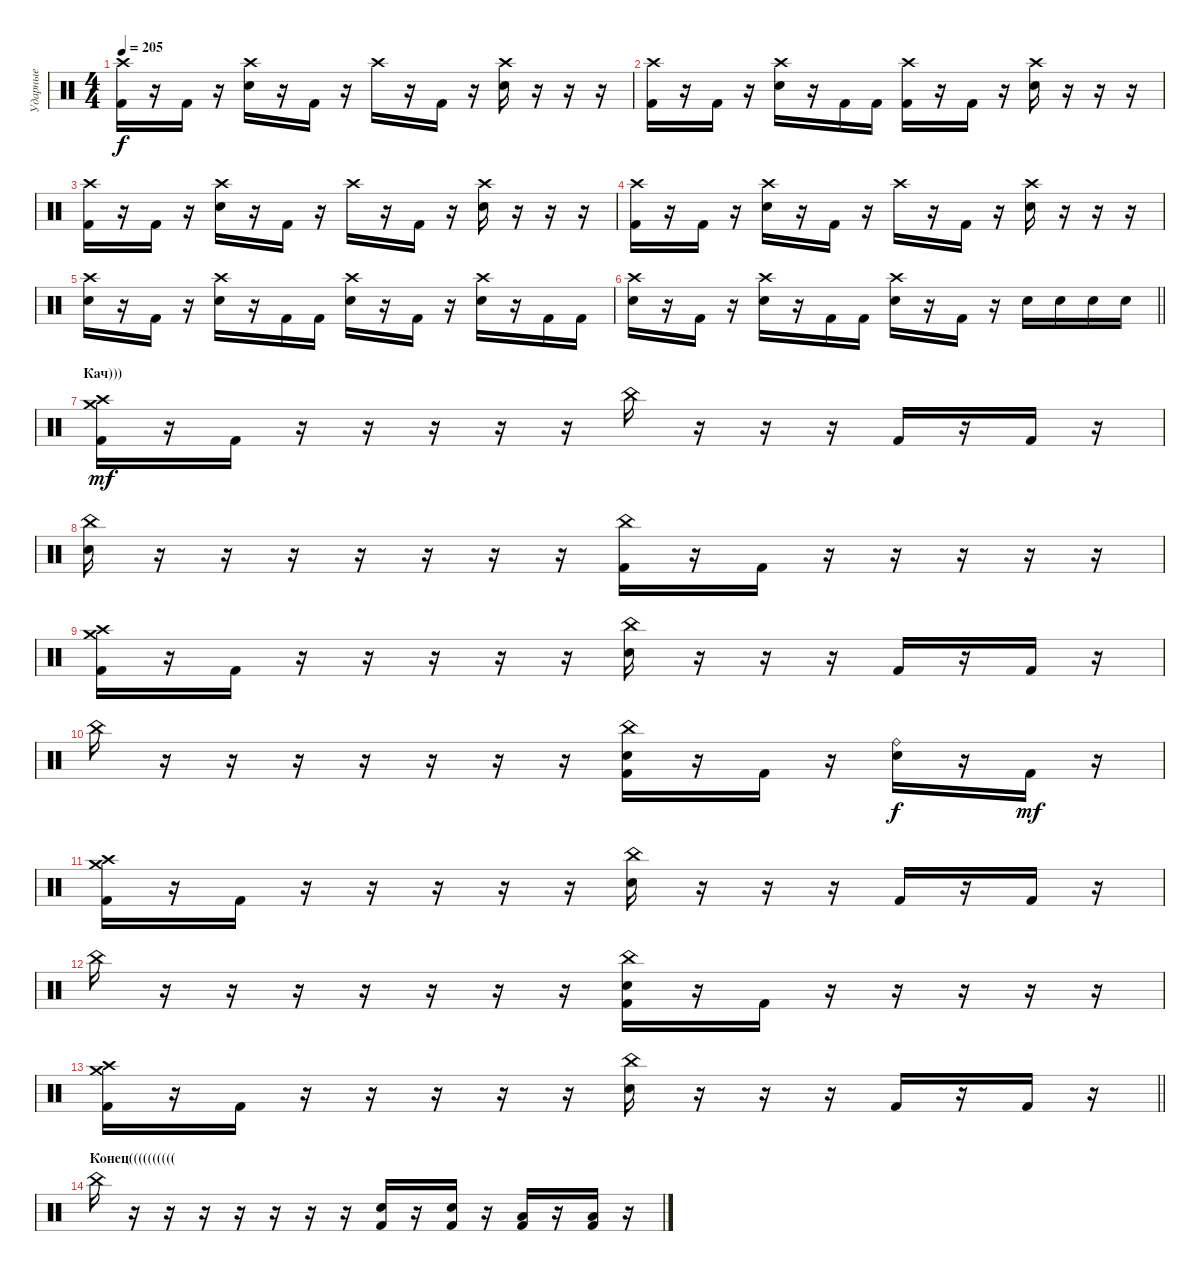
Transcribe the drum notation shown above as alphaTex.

\track ("Ударные" "Ударные") {instrument percussion}
\staff {score}
\articulation defaults
\ts (4 4)
\tempo 205
\clef neutral
\ks c
("Crash high (hit)" "Kick (hit) 2").16{dy f} r.16 "Kick (hit) 2".16 r.16 ("Crash high (hit)" "Electric Snare (hit)").16 r.16 "Kick (hit) 2".16 r.16 "Crash high (hit)".16 r.16 "Kick (hit) 2".16 r.16 ("Crash high (hit)" "Electric Snare (hit)").16 r.16 r.16 r.16 |
("Crash high (hit)" "Kick (hit) 2").16 r.16 "Kick (hit) 2".16 r.16 ("Crash high (hit)" "Electric Snare (hit)").16 r.16 "Kick (hit) 2".16 "Kick (hit) 2".16 ("Crash high (hit)" "Kick (hit) 2").16 r.16 "Kick (hit) 2".16 r.16 ("Crash high (hit)" "Electric Snare (hit)").16 r.16 r.16 r.16 |
("Crash high (hit)" "Kick (hit) 2").16 r.16 "Kick (hit) 2".16 r.16 ("Crash high (hit)" "Electric Snare (hit)").16 r.16 "Kick (hit) 2".16 r.16 "Crash high (hit)".16 r.16 "Kick (hit) 2".16 r.16 ("Crash high (hit)" "Electric Snare (hit)").16 r.16 r.16 r.16 |
("Crash high (hit)" "Kick (hit) 2").16 r.16 "Kick (hit) 2".16 r.16 ("Crash high (hit)" "Electric Snare (hit)").16 r.16 "Kick (hit) 2".16 r.16 "Crash high (hit)".16 r.16 "Kick (hit) 2".16 r.16 ("Crash high (hit)" "Electric Snare (hit)").16 r.16 r.16 r.16 |
("Crash high (hit)" "Electric Snare (hit)").16 r.16 "Kick (hit) 2".16 r.16 ("Crash high (hit)" "Electric Snare (hit)").16 r.16 "Kick (hit) 2".16 "Kick (hit) 2".16 ("Crash high (hit)" "Electric Snare (hit)").16 r.16 "Kick (hit) 2".16 r.16 ("Crash high (hit)" "Electric Snare (hit)").16 r.16 "Kick (hit) 2".16 "Kick (hit) 2".16 |
\barLineRight lightlight
("Crash high (hit)" "Electric Snare (hit)").16 r.16 "Kick (hit) 2".16 r.16 ("Crash high (hit)" "Electric Snare (hit)").16 r.16 "Kick (hit) 2".16 "Kick (hit) 2".16 ("Crash high (hit)" "Electric Snare (hit)").16 r.16 "Kick (hit) 2".16 r.16 "Electric Snare (hit)".16 "Electric Snare (hit)".16 "Electric Snare (hit)".16 "Electric Snare (hit)".16 |
\section ("" "Кач)))")
("Crash high (hit)" "Crash medium (hit)" "Kick (hit) 2").16{dy mf} r.16 "Kick (hit) 2".16 r.16 r.16 r.16 r.16 r.16 "China (hit)".16 r.16 r.16 r.16 "Kick (hit) 2".16 r.16 "Kick (hit) 2".16 r.16 |
("China (hit)" "Electric Snare (hit)").16 r.16 r.16 r.16 r.16 r.16 r.16 r.16 ("China (hit)" "Kick (hit) 2").16 r.16 "Kick (hit) 2".16 r.16 r.16 r.16 r.16 r.16 |
("Crash high (hit)" "Crash medium (hit)" "Kick (hit) 2").16 r.16 "Kick (hit) 2".16 r.16 r.16 r.16 r.16 r.16 ("China (hit)" "Electric Snare (hit)").16 r.16 r.16 r.16 "Kick (hit) 2".16 r.16 "Kick (hit) 2".16 r.16 |
"China (hit)".16 r.16 r.16 r.16 r.16 r.16 r.16 r.16 ("China (hit)" "Electric Snare (hit)" "Kick (hit) 2").16 r.16 "Kick (hit) 2".16 r.16 ("Ride (bell)" "Electric Snare (hit)").16{dy f} r.16 "Kick (hit) 2".16{dy mf} r.16 |
("Crash high (hit)" "Crash medium (hit)" "Kick (hit) 2").16 r.16 "Kick (hit) 2".16 r.16 r.16 r.16 r.16 r.16 ("China (hit)" "Electric Snare (hit)").16 r.16 r.16 r.16 "Kick (hit) 2".16 r.16 "Kick (hit) 2".16 r.16 |
"China (hit)".16 r.16 r.16 r.16 r.16 r.16 r.16 r.16 ("China (hit)" "Electric Snare (hit)" "Kick (hit) 2").16 r.16 "Kick (hit) 2".16 r.16 r.16 r.16 r.16 r.16 |
\barLineRight lightlight
("Crash high (hit)" "Crash medium (hit)" "Kick (hit) 2").16 r.16 "Kick (hit) 2".16 r.16 r.16 r.16 r.16 r.16 ("China (hit)" "Electric Snare (hit)").16 r.16 r.16 r.16 "Kick (hit) 2".16 r.16 "Kick (hit) 2".16 r.16 |
\section ("" "Конец((((((((((")
"China (hit)".16 r.16 r.16 r.16 r.16 r.16 r.16 r.16 ("Electric Snare (hit)" "Kick (hit) 2").16 r.16 ("Electric Snare (hit)" "Kick (hit) 2").16 r.16 ("Low Tom (hit)" "Kick (hit) 2").16 r.16 ("Low Tom (hit)" "Kick (hit) 2").16 r.16
